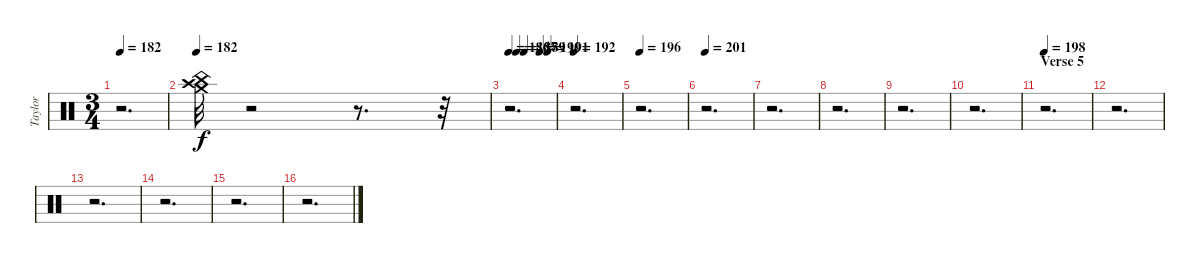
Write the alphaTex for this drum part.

\track ("Taylor" "Taylor") {instrument percussion}
\staff {score}
\articulation defaults
\ts (3 4)
\tempo 182
\clef neutral
\ks c
r.2{d dy f} |
\tempo 182
("Crash high (hit)" "China (hit)" "Crash medium (hit)").32 r.2 r.8{d} r.32 |
\tempo 186
\tempo (187 0.16666666666666666)
\tempo (189 0.3333333333333333)
\tempo (190 0.6666666666666666)
\tempo (191 0.8333333333333334)
r.2{d} |
\tempo 192
r.2{d} |
\tempo 196
r.2{d} |
\tempo 201
r.2{d} |
r.2{d} |
r.2{d} |
r.2{d} |
r.2{d} |
\section ("" "Verse 5")
\tempo 198
r.2{d} |
r.2{d} |
r.2{d} |
r.2{d} |
r.2{d} |
r.2{d}
